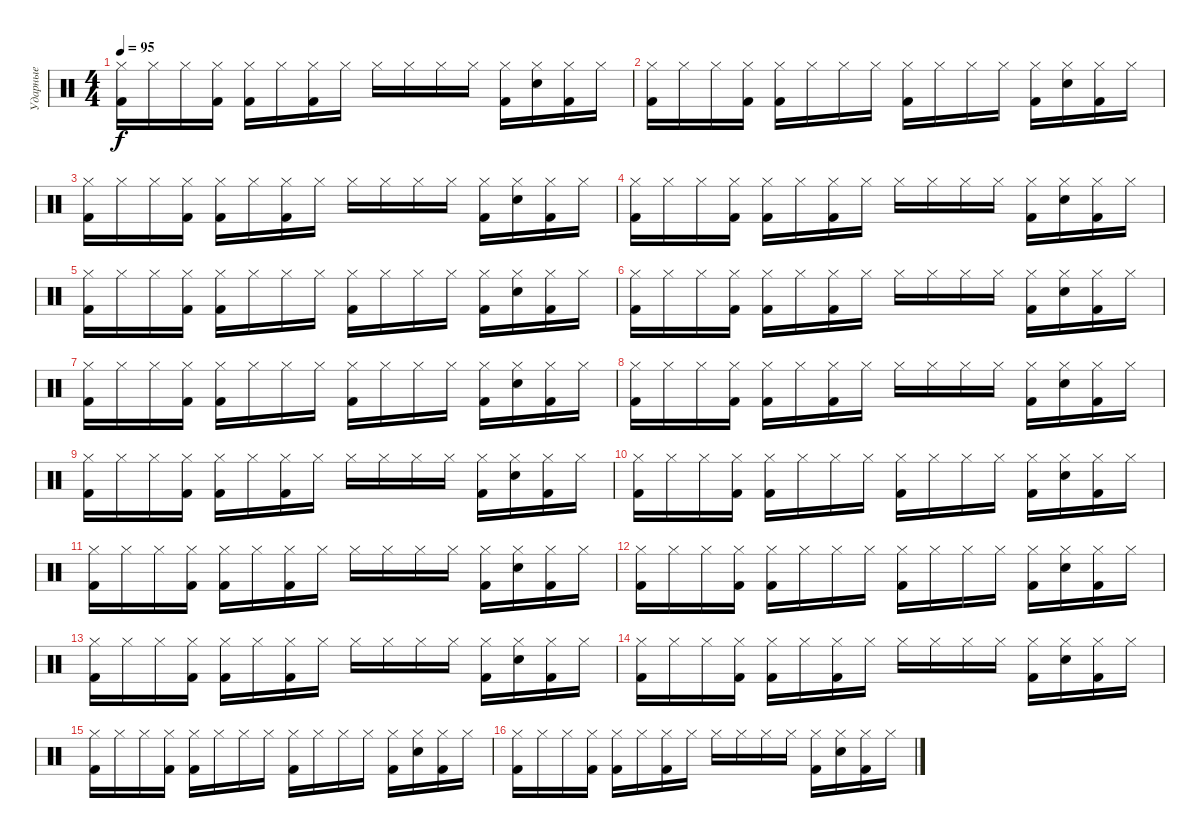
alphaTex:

\track ("Ударные" "Ударные") {instrument percussion}
\staff {score}
\articulation defaults
\ts (4 4)
\tempo 95
\clef neutral
\ks c
("Hi-Hat (closed)" "Kick (hit) 2").16{dy f} "Hi-Hat (closed)".16 "Hi-Hat (closed)".16 ("Hi-Hat (closed)" "Kick (hit) 2").16 ("Hi-Hat (closed)" "Kick (hit) 2").16 "Hi-Hat (closed)".16 ("Hi-Hat (closed)" "Kick (hit) 2").16 "Hi-Hat (closed)".16 "Hi-Hat (closed)".16 "Hi-Hat (closed)".16 "Hi-Hat (closed)".16 "Hi-Hat (closed)".16 ("Hi-Hat (closed)" "Kick (hit) 2").16 ("Hi-Hat (closed)" "Snare (hit)").16 ("Hi-Hat (closed)" "Kick (hit) 2").16 "Hi-Hat (closed)".16 |
("Hi-Hat (closed)" "Kick (hit) 2").16 "Hi-Hat (closed)".16 "Hi-Hat (closed)".16 ("Hi-Hat (closed)" "Kick (hit) 2").16 ("Hi-Hat (closed)" "Kick (hit) 2").16 "Hi-Hat (closed)".16 "Hi-Hat (closed)".16 "Hi-Hat (closed)".16 ("Hi-Hat (closed)" "Kick (hit) 2").16 "Hi-Hat (closed)".16 "Hi-Hat (closed)".16 "Hi-Hat (closed)".16 ("Hi-Hat (closed)" "Kick (hit) 2").16 ("Hi-Hat (closed)" "Snare (hit)").16 ("Hi-Hat (closed)" "Kick (hit) 2").16 "Hi-Hat (closed)".16 |
("Hi-Hat (closed)" "Kick (hit) 2").16 "Hi-Hat (closed)".16 "Hi-Hat (closed)".16 ("Hi-Hat (closed)" "Kick (hit) 2").16 ("Hi-Hat (closed)" "Kick (hit) 2").16 "Hi-Hat (closed)".16 ("Hi-Hat (closed)" "Kick (hit) 2").16 "Hi-Hat (closed)".16 "Hi-Hat (closed)".16 "Hi-Hat (closed)".16 "Hi-Hat (closed)".16 "Hi-Hat (closed)".16 ("Hi-Hat (closed)" "Kick (hit) 2").16 ("Hi-Hat (closed)" "Snare (hit)").16 ("Hi-Hat (closed)" "Kick (hit) 2").16 "Hi-Hat (closed)".16 |
("Hi-Hat (closed)" "Kick (hit) 2").16 "Hi-Hat (closed)".16 "Hi-Hat (closed)".16 ("Hi-Hat (closed)" "Kick (hit) 2").16 ("Hi-Hat (closed)" "Kick (hit) 2").16 "Hi-Hat (closed)".16 ("Hi-Hat (closed)" "Kick (hit) 2").16 "Hi-Hat (closed)".16 "Hi-Hat (closed)".16 "Hi-Hat (closed)".16 "Hi-Hat (closed)".16 "Hi-Hat (closed)".16 ("Hi-Hat (closed)" "Kick (hit) 2").16 ("Hi-Hat (closed)" "Snare (hit)").16 ("Hi-Hat (closed)" "Kick (hit) 2").16 "Hi-Hat (closed)".16 |
("Hi-Hat (closed)" "Kick (hit) 2").16 "Hi-Hat (closed)".16 "Hi-Hat (closed)".16 ("Hi-Hat (closed)" "Kick (hit) 2").16 ("Hi-Hat (closed)" "Kick (hit) 2").16 "Hi-Hat (closed)".16 "Hi-Hat (closed)".16 "Hi-Hat (closed)".16 ("Hi-Hat (closed)" "Kick (hit) 2").16 "Hi-Hat (closed)".16 "Hi-Hat (closed)".16 "Hi-Hat (closed)".16 ("Hi-Hat (closed)" "Kick (hit) 2").16 ("Hi-Hat (closed)" "Snare (hit)").16 ("Hi-Hat (closed)" "Kick (hit) 2").16 "Hi-Hat (closed)".16 |
("Hi-Hat (closed)" "Kick (hit) 2").16 "Hi-Hat (closed)".16 "Hi-Hat (closed)".16 ("Hi-Hat (closed)" "Kick (hit) 2").16 ("Hi-Hat (closed)" "Kick (hit) 2").16 "Hi-Hat (closed)".16 ("Hi-Hat (closed)" "Kick (hit) 2").16 "Hi-Hat (closed)".16 "Hi-Hat (closed)".16 "Hi-Hat (closed)".16 "Hi-Hat (closed)".16 "Hi-Hat (closed)".16 ("Hi-Hat (closed)" "Kick (hit) 2").16 ("Hi-Hat (closed)" "Snare (hit)").16 ("Hi-Hat (closed)" "Kick (hit) 2").16 "Hi-Hat (closed)".16 |
("Hi-Hat (closed)" "Kick (hit) 2").16 "Hi-Hat (closed)".16 "Hi-Hat (closed)".16 ("Hi-Hat (closed)" "Kick (hit) 2").16 ("Hi-Hat (closed)" "Kick (hit) 2").16 "Hi-Hat (closed)".16 "Hi-Hat (closed)".16 "Hi-Hat (closed)".16 ("Hi-Hat (closed)" "Kick (hit) 2").16 "Hi-Hat (closed)".16 "Hi-Hat (closed)".16 "Hi-Hat (closed)".16 ("Hi-Hat (closed)" "Kick (hit) 2").16 ("Hi-Hat (closed)" "Snare (hit)").16 ("Hi-Hat (closed)" "Kick (hit) 2").16 "Hi-Hat (closed)".16 |
("Hi-Hat (closed)" "Kick (hit) 2").16 "Hi-Hat (closed)".16 "Hi-Hat (closed)".16 ("Hi-Hat (closed)" "Kick (hit) 2").16 ("Hi-Hat (closed)" "Kick (hit) 2").16 "Hi-Hat (closed)".16 ("Hi-Hat (closed)" "Kick (hit) 2").16 "Hi-Hat (closed)".16 "Hi-Hat (closed)".16 "Hi-Hat (closed)".16 "Hi-Hat (closed)".16 "Hi-Hat (closed)".16 ("Hi-Hat (closed)" "Kick (hit) 2").16 ("Hi-Hat (closed)" "Snare (hit)").16 ("Hi-Hat (closed)" "Kick (hit) 2").16 "Hi-Hat (closed)".16 |
("Hi-Hat (closed)" "Kick (hit) 2").16 "Hi-Hat (closed)".16 "Hi-Hat (closed)".16 ("Hi-Hat (closed)" "Kick (hit) 2").16 ("Hi-Hat (closed)" "Kick (hit) 2").16 "Hi-Hat (closed)".16 ("Hi-Hat (closed)" "Kick (hit) 2").16 "Hi-Hat (closed)".16 "Hi-Hat (closed)".16 "Hi-Hat (closed)".16 "Hi-Hat (closed)".16 "Hi-Hat (closed)".16 ("Hi-Hat (closed)" "Kick (hit) 2").16 ("Hi-Hat (closed)" "Snare (hit)").16 ("Hi-Hat (closed)" "Kick (hit) 2").16 "Hi-Hat (closed)".16 |
("Hi-Hat (closed)" "Kick (hit) 2").16 "Hi-Hat (closed)".16 "Hi-Hat (closed)".16 ("Hi-Hat (closed)" "Kick (hit) 2").16 ("Hi-Hat (closed)" "Kick (hit) 2").16 "Hi-Hat (closed)".16 "Hi-Hat (closed)".16 "Hi-Hat (closed)".16 ("Hi-Hat (closed)" "Kick (hit) 2").16 "Hi-Hat (closed)".16 "Hi-Hat (closed)".16 "Hi-Hat (closed)".16 ("Hi-Hat (closed)" "Kick (hit) 2").16 ("Hi-Hat (closed)" "Snare (hit)").16 ("Hi-Hat (closed)" "Kick (hit) 2").16 "Hi-Hat (closed)".16 |
("Hi-Hat (closed)" "Kick (hit) 2").16 "Hi-Hat (closed)".16 "Hi-Hat (closed)".16 ("Hi-Hat (closed)" "Kick (hit) 2").16 ("Hi-Hat (closed)" "Kick (hit) 2").16 "Hi-Hat (closed)".16 ("Hi-Hat (closed)" "Kick (hit) 2").16 "Hi-Hat (closed)".16 "Hi-Hat (closed)".16 "Hi-Hat (closed)".16 "Hi-Hat (closed)".16 "Hi-Hat (closed)".16 ("Hi-Hat (closed)" "Kick (hit) 2").16 ("Hi-Hat (closed)" "Snare (hit)").16 ("Hi-Hat (closed)" "Kick (hit) 2").16 "Hi-Hat (closed)".16 |
("Hi-Hat (closed)" "Kick (hit) 2").16 "Hi-Hat (closed)".16 "Hi-Hat (closed)".16 ("Hi-Hat (closed)" "Kick (hit) 2").16 ("Hi-Hat (closed)" "Kick (hit) 2").16 "Hi-Hat (closed)".16 "Hi-Hat (closed)".16 "Hi-Hat (closed)".16 ("Hi-Hat (closed)" "Kick (hit) 2").16 "Hi-Hat (closed)".16 "Hi-Hat (closed)".16 "Hi-Hat (closed)".16 ("Hi-Hat (closed)" "Kick (hit) 2").16 ("Hi-Hat (closed)" "Snare (hit)").16 ("Hi-Hat (closed)" "Kick (hit) 2").16 "Hi-Hat (closed)".16 |
("Hi-Hat (closed)" "Kick (hit) 2").16 "Hi-Hat (closed)".16 "Hi-Hat (closed)".16 ("Hi-Hat (closed)" "Kick (hit) 2").16 ("Hi-Hat (closed)" "Kick (hit) 2").16 "Hi-Hat (closed)".16 ("Hi-Hat (closed)" "Kick (hit) 2").16 "Hi-Hat (closed)".16 "Hi-Hat (closed)".16 "Hi-Hat (closed)".16 "Hi-Hat (closed)".16 "Hi-Hat (closed)".16 ("Hi-Hat (closed)" "Kick (hit) 2").16 ("Hi-Hat (closed)" "Snare (hit)").16 ("Hi-Hat (closed)" "Kick (hit) 2").16 "Hi-Hat (closed)".16 |
("Hi-Hat (closed)" "Kick (hit) 2").16 "Hi-Hat (closed)".16 "Hi-Hat (closed)".16 ("Hi-Hat (closed)" "Kick (hit) 2").16 ("Hi-Hat (closed)" "Kick (hit) 2").16 "Hi-Hat (closed)".16 ("Hi-Hat (closed)" "Kick (hit) 2").16 "Hi-Hat (closed)".16 "Hi-Hat (closed)".16 "Hi-Hat (closed)".16 "Hi-Hat (closed)".16 "Hi-Hat (closed)".16 ("Hi-Hat (closed)" "Kick (hit) 2").16 ("Hi-Hat (closed)" "Snare (hit)").16 ("Hi-Hat (closed)" "Kick (hit) 2").16 "Hi-Hat (closed)".16 |
("Hi-Hat (closed)" "Kick (hit) 2").16 "Hi-Hat (closed)".16 "Hi-Hat (closed)".16 ("Hi-Hat (closed)" "Kick (hit) 2").16 ("Hi-Hat (closed)" "Kick (hit) 2").16 "Hi-Hat (closed)".16 "Hi-Hat (closed)".16 "Hi-Hat (closed)".16 ("Hi-Hat (closed)" "Kick (hit) 2").16 "Hi-Hat (closed)".16 "Hi-Hat (closed)".16 "Hi-Hat (closed)".16 ("Hi-Hat (closed)" "Kick (hit) 2").16 ("Hi-Hat (closed)" "Snare (hit)").16 ("Hi-Hat (closed)" "Kick (hit) 2").16 "Hi-Hat (closed)".16 |
("Hi-Hat (closed)" "Kick (hit) 2").16 "Hi-Hat (closed)".16 "Hi-Hat (closed)".16 ("Hi-Hat (closed)" "Kick (hit) 2").16 ("Hi-Hat (closed)" "Kick (hit) 2").16 "Hi-Hat (closed)".16 ("Hi-Hat (closed)" "Kick (hit) 2").16 "Hi-Hat (closed)".16 "Hi-Hat (closed)".16 "Hi-Hat (closed)".16 "Hi-Hat (closed)".16 "Hi-Hat (closed)".16 ("Hi-Hat (closed)" "Kick (hit) 2").16 ("Hi-Hat (closed)" "Snare (hit)").16 ("Hi-Hat (closed)" "Kick (hit) 2").16 "Hi-Hat (closed)".16
